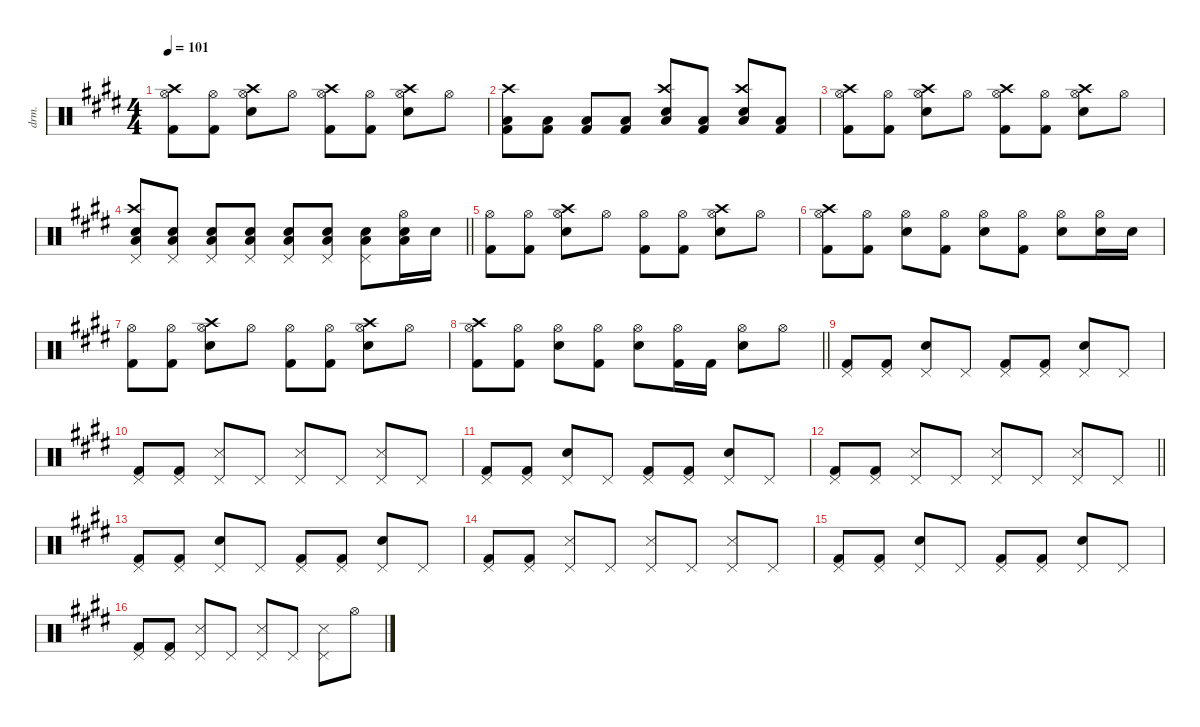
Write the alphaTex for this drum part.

\defaultSystemsLayout 4
\hideDynamics
\bracketExtendMode nobrackets
\otherSystemsTrackNameOrientation horizontal
\track ("Percussion" "drm.") {instrument percussion}
\staff {score}
\articulation defaults
\ts (4 4)
\tempo 101
\clef neutral
\ks c#minor
("Kick (hit) 2"{acc forcenatural} "Hi-Hat (open)"{acc forcenatural} "Crash high (hit)"{acc forcenatural}).8{dy f beam Down} ("Kick (hit) 2"{acc forcenatural} "Hi-Hat (open)"{acc forcenatural}).8{beam Down} ("Snare (hit) 2"{acc forcenatural} "Hi-Hat (open)"{acc forcenatural} "Crash high (hit)"{acc forcenatural}).8{beam Down} "Hi-Hat (open)"{acc forcenatural}.8{beam Down} ("Kick (hit) 2"{acc forcenatural} "Hi-Hat (open)"{acc forcenatural} "Crash high (hit)"{acc forcenatural}).8{beam Down} ("Kick (hit) 2"{acc forcenatural} "Hi-Hat (open)"{acc forcenatural}).8{beam Down} ("Snare (hit) 2"{acc forcenatural} "Hi-Hat (open)"{acc forcenatural} "Crash high (hit)"{acc forcenatural}).8{beam Down} "Hi-Hat (open)"{acc forcenatural}.8{beam Down} |
("Kick (hit) 2"{acc forcenatural} "Low Tom (hit)"{acc forcenatural} "Crash high (hit)"{acc forcenatural}).8{beam Down} ("Kick (hit) 2"{acc forcenatural} "Low Tom (hit)"{acc forcenatural}).8{beam Down} ("Kick (hit) 2"{acc forcenatural} "Low Tom (hit)"{acc forcenatural}).8{beam Up} ("Kick (hit) 2"{acc forcenatural} "Low Tom (hit)"{acc forcenatural}).8{beam Up} ("Snare (hit) 2"{acc forcenatural} "Low Tom (hit)"{acc forcenatural} "Crash high (hit)"{acc forcenatural}).8{beam Up} ("Kick (hit) 2"{acc forcenatural} "Low Tom (hit)"{acc forcenatural}).8{beam Up} ("Snare (hit) 2"{acc forcenatural} "Low Tom (hit)"{acc forcenatural} "Crash high (hit)"{acc forcenatural}).8{beam Up} ("Kick (hit) 2"{acc forcenatural} "Low Tom (hit)"{acc forcenatural}).8{beam Up} |
("Kick (hit) 2"{acc forcenatural} "Hi-Hat (open)"{acc forcenatural} "Crash high (hit)"{acc forcenatural}).8{beam Down} ("Kick (hit) 2"{acc forcenatural} "Hi-Hat (open)"{acc forcenatural}).8{beam Down} ("Snare (hit) 2"{acc forcenatural} "Hi-Hat (open)"{acc forcenatural} "Crash high (hit)"{acc forcenatural}).8{beam Down} "Hi-Hat (open)"{acc forcenatural}.8{beam Down} ("Kick (hit) 2"{acc forcenatural} "Hi-Hat (open)"{acc forcenatural} "Crash high (hit)"{acc forcenatural}).8{beam Down} ("Kick (hit) 2"{acc forcenatural} "Hi-Hat (open)"{acc forcenatural}).8{beam Down} ("Snare (hit) 2"{acc forcenatural} "Hi-Hat (open)"{acc forcenatural} "Crash high (hit)"{acc forcenatural}).8{beam Down} "Hi-Hat (open)"{acc forcenatural}.8{beam Down} |
\barLineRight lightlight
("Snare (hit) 2"{acc forcenatural} "Low Tom (hit)"{acc forcenatural} "Crash high (hit)"{acc forcenatural} "Pedal Hi-Hat (hit)"{acc forcenatural}).8{dy mp beam Up} ("Snare (hit) 2"{acc forcenatural} "Low Tom (hit)"{acc forcenatural} "Pedal Hi-Hat (hit)"{acc forcenatural}).8{beam Up} ("Snare (hit) 2"{acc forcenatural} "Low Tom (hit)"{acc forcenatural} "Pedal Hi-Hat (hit)"{acc forcenatural}).8{dy mf beam Up} ("Snare (hit) 2"{acc forcenatural} "Low Tom (hit)"{acc forcenatural} "Pedal Hi-Hat (hit)"{acc forcenatural}).8{beam Up} ("Snare (hit) 2"{acc forcenatural} "Low Tom (hit)"{acc forcenatural} "Pedal Hi-Hat (hit)"{acc forcenatural}).8{dy f beam Up} ("Snare (hit) 2"{acc forcenatural} "Low Tom (hit)"{acc forcenatural} "Pedal Hi-Hat (hit)"{acc forcenatural}).8{beam Up} ("Snare (hit) 2"{acc forcenatural} "Low Tom (hit)"{acc forcenatural} "Pedal Hi-Hat (hit)"{acc forcenatural}).8{beam Down} ("Snare (hit) 2"{acc forcenatural} "Low Tom (hit)"{acc forcenatural} "Hi-Hat (open)"{acc forcenatural}).16{beam Down} "Snare (hit) 2"{acc forcenatural}.16{beam Down} |
("Kick (hit) 2"{acc forcenatural} "Hi-Hat (open)"{acc forcenatural}).8{beam Down} ("Kick (hit) 2"{acc forcenatural} "Hi-Hat (open)"{acc forcenatural}).8{beam Down} ("Snare (hit) 2"{acc forcenatural} "Hi-Hat (open)"{acc forcenatural} "Crash high (hit)"{acc forcenatural}).8{beam Down} "Hi-Hat (open)"{acc forcenatural}.8{beam Down} ("Kick (hit) 2"{acc forcenatural} "Hi-Hat (open)"{acc forcenatural}).8{beam Down} ("Kick (hit) 2"{acc forcenatural} "Hi-Hat (open)"{acc forcenatural}).8{beam Down} ("Snare (hit) 2"{acc forcenatural} "Hi-Hat (open)"{acc forcenatural} "Crash high (hit)"{acc forcenatural}).8{beam Down} "Hi-Hat (open)"{acc forcenatural}.8{beam Down} |
("Kick (hit) 2"{acc forcenatural} "Hi-Hat (open)"{acc forcenatural} "Crash high (hit)"{acc forcenatural}).8{beam Down} ("Kick (hit) 2"{acc forcenatural} "Hi-Hat (open)"{acc forcenatural}).8{beam Down} ("Snare (hit) 2"{acc forcenatural} "Hi-Hat (open)"{acc forcenatural}).8{beam Down} ("Kick (hit) 2"{acc forcenatural} "Hi-Hat (open)"{acc forcenatural}).8{beam Down} ("Snare (hit) 2"{acc forcenatural} "Hi-Hat (open)"{acc forcenatural}).8{beam Down} ("Kick (hit) 2"{acc forcenatural} "Hi-Hat (open)"{acc forcenatural}).8{beam Down} ("Snare (hit) 2"{acc forcenatural} "Hi-Hat (open)"{acc forcenatural}).8{beam Down} ("Snare (hit) 2"{acc forcenatural} "Hi-Hat (open)"{acc forcenatural}).16{beam Down} "Snare (hit) 2"{acc forcenatural}.16{beam Down} |
("Kick (hit) 2"{acc forcenatural} "Hi-Hat (open)"{acc forcenatural}).8{beam Down} ("Kick (hit) 2"{acc forcenatural} "Hi-Hat (open)"{acc forcenatural}).8{beam Down} ("Snare (hit) 2"{acc forcenatural} "Hi-Hat (open)"{acc forcenatural} "Crash high (hit)"{acc forcenatural}).8{beam Down} "Hi-Hat (open)"{acc forcenatural}.8{beam Down} ("Kick (hit) 2"{acc forcenatural} "Hi-Hat (open)"{acc forcenatural}).8{beam Down} ("Kick (hit) 2"{acc forcenatural} "Hi-Hat (open)"{acc forcenatural}).8{beam Down} ("Snare (hit) 2"{acc forcenatural} "Hi-Hat (open)"{acc forcenatural} "Crash high (hit)"{acc forcenatural}).8{beam Down} "Hi-Hat (open)"{acc forcenatural}.8{beam Down} |
\barLineRight lightlight
("Kick (hit) 2"{acc forcenatural} "Hi-Hat (open)"{acc forcenatural} "Crash high (hit)"{acc forcenatural}).8{beam Down} ("Kick (hit) 2"{acc forcenatural} "Hi-Hat (open)"{acc forcenatural}).8{beam Down} ("Snare (hit) 2"{acc forcenatural} "Hi-Hat (open)"{acc forcenatural}).8{beam Down} ("Kick (hit) 2"{acc forcenatural} "Hi-Hat (open)"{acc forcenatural}).8{beam Down} ("Snare (hit) 2"{acc forcenatural} "Hi-Hat (open)"{acc forcenatural}).8{beam Down} ("Kick (hit) 2"{acc forcenatural} "Hi-Hat (open)"{acc forcenatural}).16{beam Down} "Kick (hit) 2"{acc forcenatural}.16{beam Down} ("Snare (hit) 2"{acc forcenatural} "Hi-Hat (open)"{acc forcenatural}).8{beam Down} "Hi-Hat (open)"{acc forcenatural}.8{beam Down} |
("Kick (hit) 2"{acc forcenatural} "Pedal Hi-Hat (hit)"{acc forcenatural}).8{beam Up} ("Kick (hit) 2"{acc forcenatural} "Pedal Hi-Hat (hit)"{acc forcenatural}).8{beam Up} ("Snare (hit) 2"{acc forcenatural} "Pedal Hi-Hat (hit)"{acc forcenatural}).8{beam Up} "Pedal Hi-Hat (hit)"{acc forcenatural}.8{beam Up} ("Kick (hit) 2"{acc forcenatural} "Pedal Hi-Hat (hit)"{acc forcenatural}).8{beam Up} ("Kick (hit) 2"{acc forcenatural} "Pedal Hi-Hat (hit)"{acc forcenatural}).8{beam Up} ("Snare (hit) 2"{acc forcenatural} "Pedal Hi-Hat (hit)"{acc forcenatural}).8{beam Up} "Pedal Hi-Hat (hit)"{acc forcenatural}.8{beam Up} |
("Kick (hit) 2"{acc forcenatural} "Pedal Hi-Hat (hit)"{acc forcenatural}).8{beam Up} ("Kick (hit) 2"{acc forcenatural} "Pedal Hi-Hat (hit)"{acc forcenatural}).8{beam Up} ("Metronome (hit)"{acc forcenatural} "Pedal Hi-Hat (hit)"{acc forcenatural}).8{beam Up} "Pedal Hi-Hat (hit)"{acc forcenatural}.8{beam Up} ("Metronome (hit)"{acc forcenatural} "Pedal Hi-Hat (hit)"{acc forcenatural}).8{beam Up} "Pedal Hi-Hat (hit)"{acc forcenatural}.8{beam Up} ("Metronome (hit)"{acc forcenatural} "Pedal Hi-Hat (hit)"{acc forcenatural}).8{beam Up} "Pedal Hi-Hat (hit)"{acc forcenatural}.8{beam Up} |
("Kick (hit) 2"{acc forcenatural} "Pedal Hi-Hat (hit)"{acc forcenatural}).8{beam Up} ("Kick (hit) 2"{acc forcenatural} "Pedal Hi-Hat (hit)"{acc forcenatural}).8{beam Up} ("Snare (hit) 2"{acc forcenatural} "Pedal Hi-Hat (hit)"{acc forcenatural}).8{beam Up} "Pedal Hi-Hat (hit)"{acc forcenatural}.8{beam Up} ("Kick (hit) 2"{acc forcenatural} "Pedal Hi-Hat (hit)"{acc forcenatural}).8{beam Up} ("Kick (hit) 2"{acc forcenatural} "Pedal Hi-Hat (hit)"{acc forcenatural}).8{beam Up} ("Snare (hit) 2"{acc forcenatural} "Pedal Hi-Hat (hit)"{acc forcenatural}).8{beam Up} "Pedal Hi-Hat (hit)"{acc forcenatural}.8{beam Up} |
\barLineRight lightlight
("Kick (hit) 2"{acc forcenatural} "Pedal Hi-Hat (hit)"{acc forcenatural}).8{beam Up} ("Kick (hit) 2"{acc forcenatural} "Pedal Hi-Hat (hit)"{acc forcenatural}).8{beam Up} ("Metronome (hit)"{acc forcenatural} "Pedal Hi-Hat (hit)"{acc forcenatural}).8{beam Up} "Pedal Hi-Hat (hit)"{acc forcenatural}.8{beam Up} ("Metronome (hit)"{acc forcenatural} "Pedal Hi-Hat (hit)"{acc forcenatural}).8{beam Up} "Pedal Hi-Hat (hit)"{acc forcenatural}.8{beam Up} ("Metronome (hit)"{acc forcenatural} "Pedal Hi-Hat (hit)"{acc forcenatural}).8{beam Up} "Pedal Hi-Hat (hit)"{acc forcenatural}.8{beam Up} |
("Kick (hit) 2"{acc forcenatural} "Pedal Hi-Hat (hit)"{acc forcenatural}).8{beam Up} ("Kick (hit) 2"{acc forcenatural} "Pedal Hi-Hat (hit)"{acc forcenatural}).8{beam Up} ("Snare (hit) 2"{acc forcenatural} "Pedal Hi-Hat (hit)"{acc forcenatural}).8{beam Up} "Pedal Hi-Hat (hit)"{acc forcenatural}.8{beam Up} ("Kick (hit) 2"{acc forcenatural} "Pedal Hi-Hat (hit)"{acc forcenatural}).8{beam Up} ("Kick (hit) 2"{acc forcenatural} "Pedal Hi-Hat (hit)"{acc forcenatural}).8{beam Up} ("Snare (hit) 2"{acc forcenatural} "Pedal Hi-Hat (hit)"{acc forcenatural}).8{beam Up} "Pedal Hi-Hat (hit)"{acc forcenatural}.8{beam Up} |
("Kick (hit) 2"{acc forcenatural} "Pedal Hi-Hat (hit)"{acc forcenatural}).8{beam Up} ("Kick (hit) 2"{acc forcenatural} "Pedal Hi-Hat (hit)"{acc forcenatural}).8{beam Up} ("Metronome (hit)"{acc forcenatural} "Pedal Hi-Hat (hit)"{acc forcenatural}).8{beam Up} "Pedal Hi-Hat (hit)"{acc forcenatural}.8{beam Up} ("Metronome (hit)"{acc forcenatural} "Pedal Hi-Hat (hit)"{acc forcenatural}).8{beam Up} "Pedal Hi-Hat (hit)"{acc forcenatural}.8{beam Up} ("Metronome (hit)"{acc forcenatural} "Pedal Hi-Hat (hit)"{acc forcenatural}).8{beam Up} "Pedal Hi-Hat (hit)"{acc forcenatural}.8{beam Up} |
("Kick (hit) 2"{acc forcenatural} "Pedal Hi-Hat (hit)"{acc forcenatural}).8{beam Up} ("Kick (hit) 2"{acc forcenatural} "Pedal Hi-Hat (hit)"{acc forcenatural}).8{beam Up} ("Snare (hit) 2"{acc forcenatural} "Pedal Hi-Hat (hit)"{acc forcenatural}).8{beam Up} "Pedal Hi-Hat (hit)"{acc forcenatural}.8{beam Up} ("Kick (hit) 2"{acc forcenatural} "Pedal Hi-Hat (hit)"{acc forcenatural}).8{beam Up} ("Kick (hit) 2"{acc forcenatural} "Pedal Hi-Hat (hit)"{acc forcenatural}).8{beam Up} ("Snare (hit) 2"{acc forcenatural} "Pedal Hi-Hat (hit)"{acc forcenatural}).8{beam Up} "Pedal Hi-Hat (hit)"{acc forcenatural}.8{beam Up} |
("Kick (hit) 2"{acc forcenatural} "Pedal Hi-Hat (hit)"{acc forcenatural}).8{beam Up} ("Kick (hit) 2"{acc forcenatural} "Pedal Hi-Hat (hit)"{acc forcenatural}).8{beam Up} ("Metronome (hit)"{acc forcenatural} "Pedal Hi-Hat (hit)"{acc forcenatural}).8{beam Up} "Pedal Hi-Hat (hit)"{acc forcenatural}.8{beam Up} ("Metronome (hit)"{acc forcenatural} "Pedal Hi-Hat (hit)"{acc forcenatural}).8{beam Up} "Pedal Hi-Hat (hit)"{acc forcenatural}.8{beam Up} ("Metronome (hit)"{acc forcenatural} "Pedal Hi-Hat (hit)"{acc forcenatural}).8{beam Down} "Hi-Hat (open)"{acc forcenatural}.8{beam Down}
